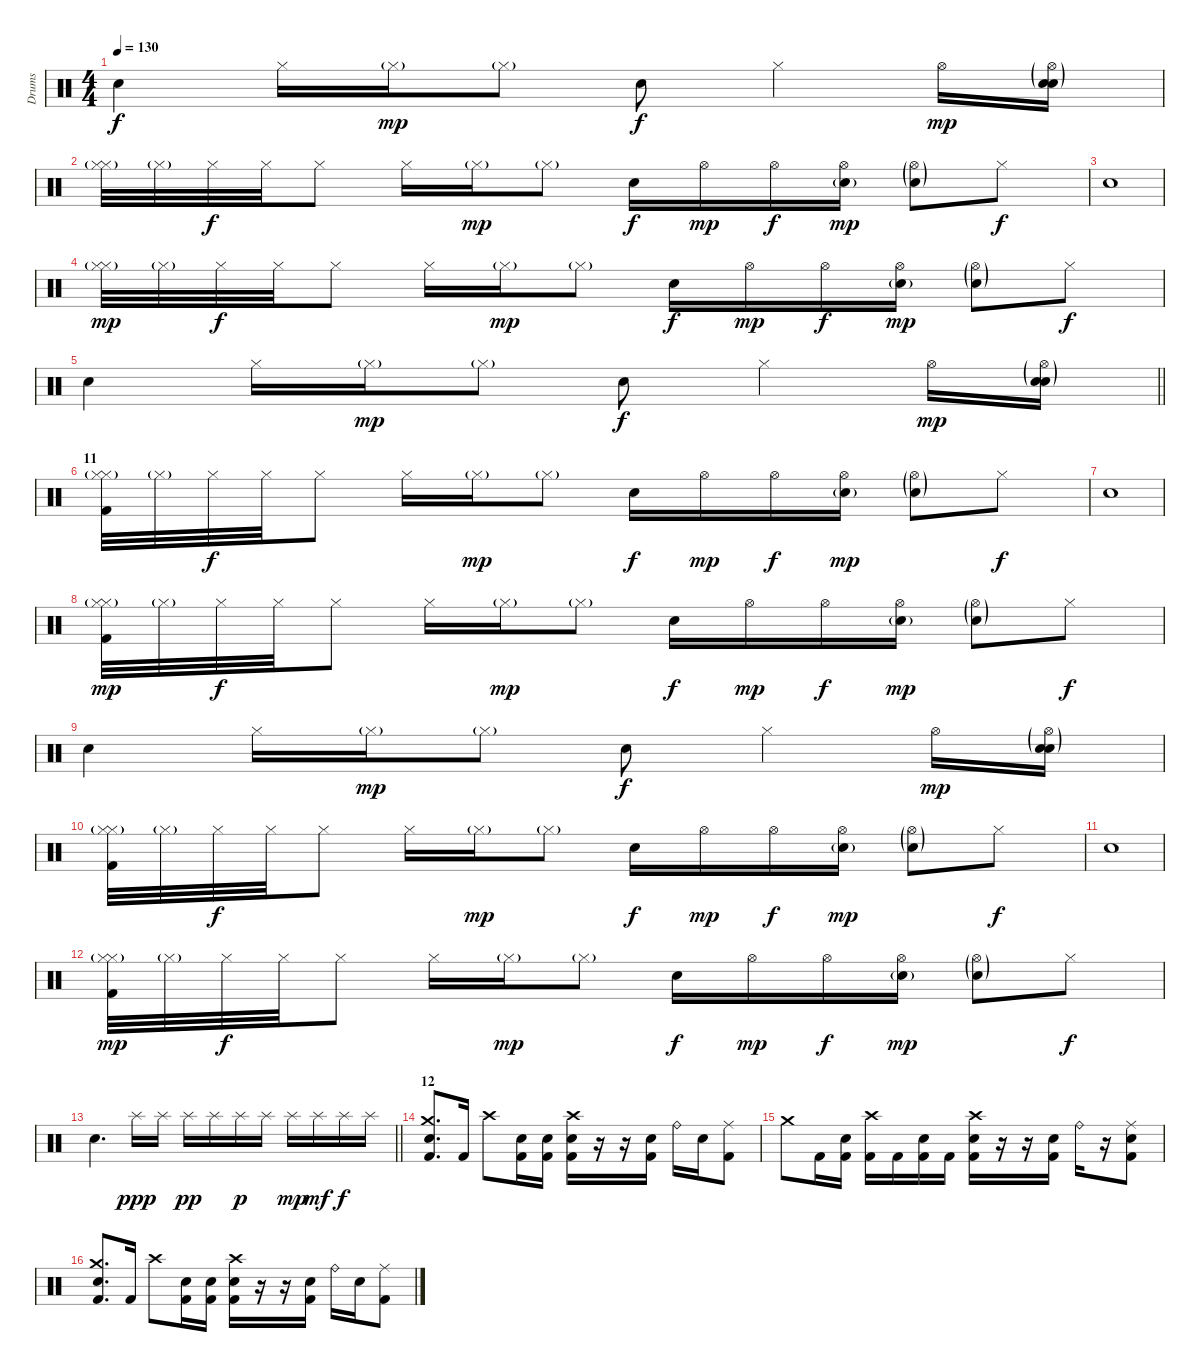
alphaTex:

\track ("Drums" "Drums") {instrument percussion}
\staff {score}
\articulation defaults
\ts (4 4)
\tempo 130
\clef neutral
\ks c "Snare (hit) 2".4{dy f} "Hi-Hat (closed)".16 "Hi-Hat (closed)"{g}.16{dy mp} "Hi-Hat (closed)"{g}.8 "Snare (hit) 2".8{dy f} "Hi-Hat (closed)".4 "Hi-Hat (open)".16{dy mp}
("Hi-Hat (open)"{g} "Snare (hit) 2"{g} "Snare (hit) 2").16 |
("Hi-Hat (closed)"{g} "Hi-Hat (closed)").32 "Hi-Hat (closed)"{g}.32 "Hi-Hat (closed)".32{dy f} "Hi-Hat (closed)".32 "Hi-Hat (closed)".8 "Hi-Hat (closed)".16 "Hi-Hat (closed)"{g}.16{dy mp} "Hi-Hat (closed)"{g}.8 "Snare (hit) 2".16{dy f} "Hi-Hat (open)".16{dy mp} "Hi-Hat (open)".16{dy f} ("Hi-Hat (open)" "Snare (hit) 2"{g}).16{dy mp} ("Hi-Hat (open)"{g} "Snare (hit) 2"{g}).8 "Hi-Hat (closed)".8{dy f} |
"Snare (hit) 2".1 |
("Hi-Hat (closed)"{g} "Hi-Hat (closed)").32{dy mp} "Hi-Hat (closed)"{g}.32 "Hi-Hat (closed)".32{dy f} "Hi-Hat (closed)".32 "Hi-Hat (closed)".8 "Hi-Hat (closed)".16 "Hi-Hat (closed)"{g}.16{dy mp} "Hi-Hat (closed)"{g}.8 "Snare (hit) 2".16{dy f} "Hi-Hat (open)".16{dy mp} "Hi-Hat (open)".16{dy f} ("Hi-Hat (open)" "Snare (hit) 2"{g}).16{dy mp} ("Hi-Hat (open)"{g} "Snare (hit) 2"{g}).8 "Hi-Hat (closed)".8{dy f} |
\barLineRight lightlight "Snare (hit) 2".4 "Hi-Hat (closed)".16 "Hi-Hat (closed)"{g}.16{dy mp} "Hi-Hat (closed)"{g}.8 "Snare (hit) 2".8{dy f} "Hi-Hat (closed)".4 "Hi-Hat (open)".16{dy mp}
("Hi-Hat (open)"{g} "Snare (hit) 2"{g} "Snare (hit) 2").16 |
\section ("" "11")
("Hi-Hat (closed)"{g} "Kick (hit) 2" "Hi-Hat (closed)").32 "Hi-Hat (closed)"{g}.32 "Hi-Hat (closed)".32{dy f} "Hi-Hat (closed)".32 "Hi-Hat (closed)".8 "Hi-Hat (closed)".16 "Hi-Hat (closed)"{g}.16{dy mp} "Hi-Hat (closed)"{g}.8 "Snare (hit) 2".16{dy f} "Hi-Hat (open)".16{dy mp} "Hi-Hat (open)".16{dy f} ("Hi-Hat (open)" "Snare (hit) 2"{g}).16{dy mp} ("Hi-Hat (open)"{g} "Snare (hit) 2"{g}).8 "Hi-Hat (closed)".8{dy f} |
"Snare (hit) 2".1 |
("Hi-Hat (closed)"{g} "Kick (hit) 2" "Hi-Hat (closed)").32{dy mp} "Hi-Hat (closed)"{g}.32 "Hi-Hat (closed)".32{dy f} "Hi-Hat (closed)".32 "Hi-Hat (closed)".8 "Hi-Hat (closed)".16 "Hi-Hat (closed)"{g}.16{dy mp} "Hi-Hat (closed)"{g}.8 "Snare (hit) 2".16{dy f} "Hi-Hat (open)".16{dy mp} "Hi-Hat (open)".16{dy f} ("Hi-Hat (open)" "Snare (hit) 2"{g}).16{dy mp} ("Hi-Hat (open)"{g} "Snare (hit) 2"{g}).8 "Hi-Hat (closed)".8{dy f} |
"Snare (hit) 2".4 "Hi-Hat (closed)".16 "Hi-Hat (closed)"{g}.16{dy mp} "Hi-Hat (closed)"{g}.8 "Snare (hit) 2".8{dy f} "Hi-Hat (closed)".4 "Hi-Hat (open)".16{dy mp} ("Hi-Hat (open)"{g} "Snare (hit) 2"{g} "Snare (hit) 2").16 |
("Hi-Hat (closed)"{g} "Kick (hit) 2" "Hi-Hat (closed)").32 "Hi-Hat (closed)"{g}.32 "Hi-Hat (closed)".32{dy f} "Hi-Hat (closed)".32 "Hi-Hat (closed)".8 "Hi-Hat (closed)".16 "Hi-Hat (closed)"{g}.16{dy mp} "Hi-Hat (closed)"{g}.8 "Snare (hit) 2".16{dy f} "Hi-Hat (open)".16{dy mp} "Hi-Hat (open)".16{dy f} ("Hi-Hat (open)" "Snare (hit) 2"{g}).16{dy mp} ("Hi-Hat (open)"{g} "Snare (hit) 2"{g}).8 "Hi-Hat (closed)".8{dy f} |
"Snare (hit) 2".1 |
("Hi-Hat (closed)"{g} "Kick (hit) 2" "Hi-Hat (closed)").32{dy mp} "Hi-Hat (closed)"{g}.32 "Hi-Hat (closed)".32{dy f} "Hi-Hat (closed)".32 "Hi-Hat (closed)".8 "Hi-Hat (closed)".16 "Hi-Hat (closed)"{g}.16{dy mp} "Hi-Hat (closed)"{g}.8 "Snare (hit) 2".16{dy f} "Hi-Hat (open)".16{dy mp} "Hi-Hat (open)".16{dy f} ("Hi-Hat (open)" "Snare (hit) 2"{g}).16{dy mp} ("Hi-Hat (open)"{g} "Snare (hit) 2"{g}).8 "Hi-Hat (closed)".8{dy f} |
\barLineRight lightlight "Snare (hit) 2".4{d} "Splash (hit)".16{dy ppp} "Splash (hit)".16 "Splash (hit)".16{dy pp} "Splash (hit)".16 "Splash (hit)".16{dy p} "Splash (hit)".16 "Splash (hit)".16{dy mp} "Splash (hit)".16{dy mf} "Splash (hit)".16{dy f} "Splash (hit)".16
|
\section ("" "12")
("Crash medium (hit)" "Electric Snare (hit)" "Kick (hit) 2").8{d} "Kick (hit) 2".16 "Crash high (hit)".8 ("Electric Snare (hit)" "Kick (hit) 2").16 ("Electric Snare (hit)" "Kick (hit) 2").16 ("Crash high (hit)" "Electric Snare (hit)" "Kick (hit) 2").16 r.16 r.16 ("Electric Snare (hit)" "Kick (hit) 2").16 "Ride (bell)".16 "Electric Snare (hit)".16 ("Ride (middle)" "Kick (hit) 2").8 |
"Crash medium (hit)".8 "Kick (hit) 2".16 ("Electric Snare (hit)" "Kick (hit) 2").16 ("Crash high (hit)" "Kick (hit) 2").16 "Kick (hit) 2".16 ("Electric Snare (hit)" "Kick (hit) 2").16 "Kick (hit) 2".16 ("Crash high (hit)" "Electric Snare (hit)" "Kick (hit) 2").16 r.16 r.16 ("Electric Snare (hit)" "Kick (hit) 2").16 "Ride (bell)".16 r.16 ("Ride (middle)" "Electric Snare (hit)" "Kick (hit) 2").8 |
("Crash medium (hit)" "Electric Snare (hit)" "Kick (hit) 2").8{d} "Kick (hit) 2".16 "Crash high (hit)".8 ("Electric Snare (hit)" "Kick (hit) 2").16 ("Electric Snare (hit)" "Kick (hit) 2").16 ("Crash high (hit)" "Electric Snare (hit)" "Kick (hit) 2").16 r.16 r.16 ("Electric Snare (hit)" "Kick (hit) 2").16 "Ride (bell)".16 "Electric Snare (hit)".16 ("Ride (middle)" "Kick (hit) 2").8
